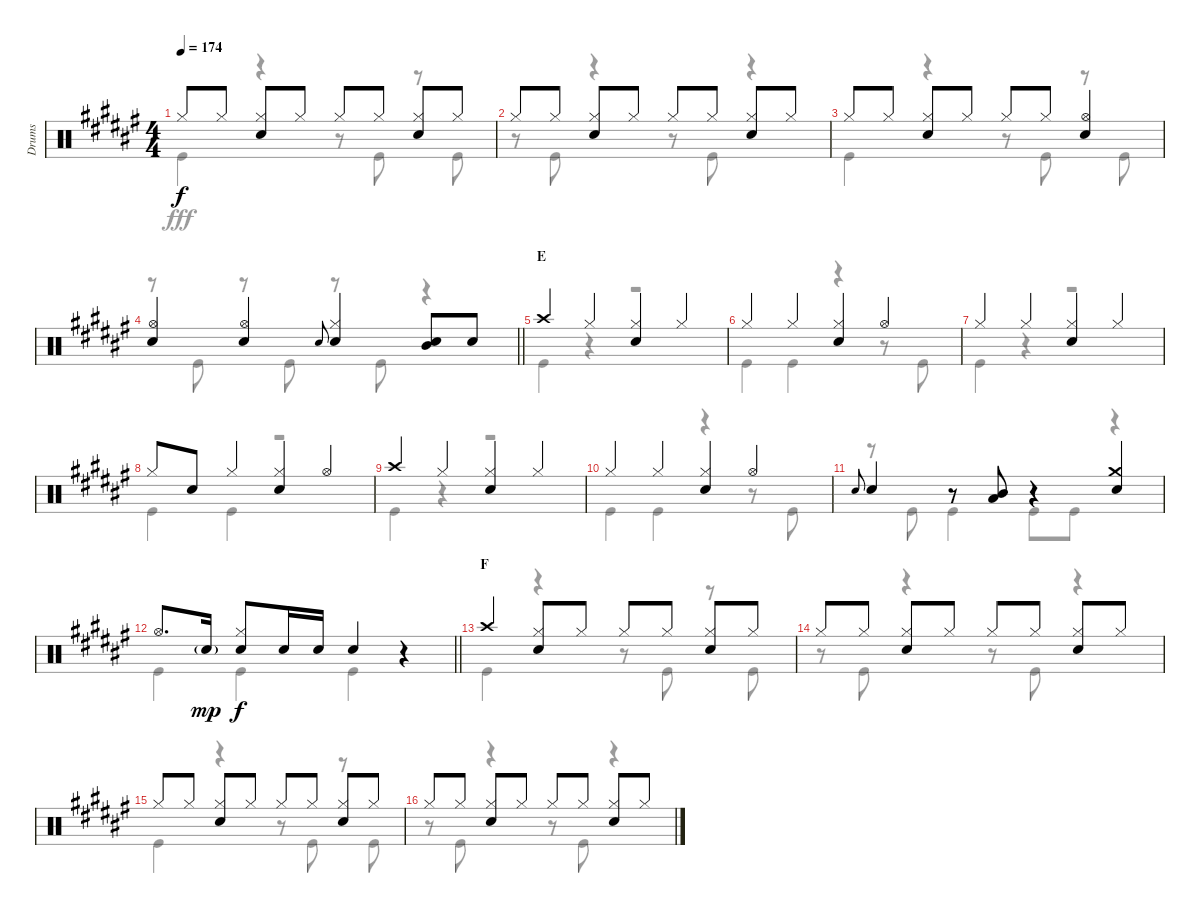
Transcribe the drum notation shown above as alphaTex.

\track ("Drums" "Drums") {instrument percussion}
\staff {score}
\articulation defaults
\voice
\ts (4 4)
\tempo 174
\clef neutral
\ks f# "Hi-Hat (closed)".8{dy f} "Hi-Hat (closed)".8
("Hi-Hat (closed)" "Snare (hit) 2").8 "Hi-Hat (closed)".8 "Hi-Hat (closed)".8 "Hi-Hat (closed)".8 ("Hi-Hat (closed)" "Snare (hit) 2").8 "Hi-Hat (closed)".8 |
"Hi-Hat (closed)".8 "Hi-Hat (closed)".8 ("Hi-Hat (closed)" "Snare (hit) 2").8 "Hi-Hat (closed)".8 "Hi-Hat (closed)".8 "Hi-Hat (closed)".8 ("Hi-Hat (closed)" "Snare (hit) 2").8 "Hi-Hat (closed)".8 |
"Hi-Hat (closed)".8 "Hi-Hat (closed)".8 ("Hi-Hat (closed)" "Snare (hit) 2").8 "Hi-Hat (closed)".8 "Hi-Hat (closed)".8 "Hi-Hat (closed)".8 ("Hi-Hat (open)" "Snare (hit) 2").4 |
\barLineRight lightlight
("Hi-Hat (open)" "Snare (hit) 2").4 ("Hi-Hat (open)" "Snare (hit) 2").4 "Snare (hit) 2".8{gr onbeat} ("Hi-Hat (closed)" "Snare (hit) 2").4 ("Mid Tom (hit)" "Snare (hit) 2").8 "Snare (hit) 2".8 |
\section ("" "E")
"Crash high (hit)".4 "Hi-Hat (closed)".4 ("Hi-Hat (closed)" "Snare (hit) 2").4 "Hi-Hat (closed)".4 |
"Hi-Hat (closed)".4 "Hi-Hat (closed)".4 ("Hi-Hat (closed)" "Snare (hit) 2").4 "Hi-Hat (open)".4 |
"Hi-Hat (closed)".4 "Hi-Hat (closed)".4 ("Hi-Hat (closed)" "Snare (hit) 2").4 "Hi-Hat (closed)".4 |
"Hi-Hat (closed)".8 "Snare (hit) 2".8 "Hi-Hat (closed)".4 ("Hi-Hat (closed)" "Snare (hit) 2").4 "Hi-Hat (open)".4 |
"Crash high (hit)".4 "Hi-Hat (closed)".4 ("Hi-Hat (closed)" "Snare (hit) 2").4 "Hi-Hat (closed)".4 |
"Hi-Hat (closed)".4 "Hi-Hat (closed)".4 ("Hi-Hat (closed)" "Snare (hit) 2").4 "Hi-Hat (open)".4 |
"Snare (hit) 2".8{gr onbeat} "Snare (hit) 2".4 r.8 ("Mid Tom (hit)" "Low Tom (hit)").8 r.4 ("Crash medium (hit)" "Snare (hit) 2").4 |
\barLineRight lightlight "Hi-Hat (open)".8{d} "Snare (hit) 2"{g}.16{dy mp}
("Hi-Hat (closed)" "Snare (hit) 2").8{dy f} "Snare (hit) 2".16 "Snare (hit) 2".16 "Snare (hit) 2".4 r.4 |
\section ("" "F")
"Crash high (hit)".4 ("Hi-Hat (closed)" "Snare (hit) 2").8 "Hi-Hat (closed)".8 "Hi-Hat (closed)".8 "Hi-Hat (closed)".8 ("Hi-Hat (closed)" "Snare (hit) 2").8 "Hi-Hat (closed)".8 |
"Hi-Hat (closed)".8 "Hi-Hat (closed)".8 ("Hi-Hat (closed)" "Snare (hit) 2").8 "Hi-Hat (closed)".8 "Hi-Hat (closed)".8 "Hi-Hat (closed)".8 ("Hi-Hat (closed)" "Snare (hit) 2").8 "Hi-Hat (closed)".8 |
"Hi-Hat (closed)".8 "Hi-Hat (closed)".8 ("Hi-Hat (closed)" "Snare (hit) 2").8 "Hi-Hat (closed)".8 "Hi-Hat (closed)".8 "Hi-Hat (closed)".8 ("Hi-Hat (closed)" "Snare (hit) 2").8 "Hi-Hat (closed)".8 |
"Hi-Hat (closed)".8 "Hi-Hat (closed)".8 ("Hi-Hat (closed)" "Snare (hit) 2").8 "Hi-Hat (closed)".8 "Hi-Hat (closed)".8 "Hi-Hat (closed)".8 ("Hi-Hat (closed)" "Snare (hit) 2").8 "Hi-Hat (closed)".8
\voice
\clef neutral
\ottava regular
\simile none
\ks f# "Kick (hit)".4{dy fff}
r.4 r.8 "Kick (hit)".8 r.8 "Kick (hit)".8 |
r.8 "Kick (hit)".8 r.4 r.8 "Kick (hit)".8 r.4 |
"Kick (hit)".4 r.4 r.8 "Kick (hit)".8 r.8 "Kick (hit)".8 |
\barLineRight lightlight
r.8 "Kick (hit)".8 r.8 "Kick (hit)".8 r.8 "Kick (hit)".8 r.4 |
"Kick (hit)".4 r.4 r.2 |
"Kick (hit)".4 "Kick (hit)".4 r.4 r.8 "Kick (hit)".8 |
"Kick (hit)".4 r.4 r.2 |
"Kick (hit)".4 "Kick (hit)".4 r.2 |
"Kick (hit)".4 r.4 r.2 |
"Kick (hit)".4 "Kick (hit)".4 r.4 r.8 "Kick (hit)".8 |
r.8 "Kick (hit)".8 "Kick (hit)".4 "Kick (hit)".8 "Kick (hit)".8 r.4 |
\barLineRight lightlight "Kick (hit)".4 "Kick (hit)".4 "Kick (hit)".4
r.4 |
"Kick (hit)".4 r.4 r.8 "Kick (hit)".8 r.8 "Kick (hit)".8 |
r.8 "Kick (hit)".8 r.4 r.8 "Kick (hit)".8 r.4 |
"Kick (hit)".4 r.4 r.8 "Kick (hit)".8 r.8 "Kick (hit)".8 |
r.8 "Kick (hit)".8 r.4 r.8 "Kick (hit)".8 r.4
